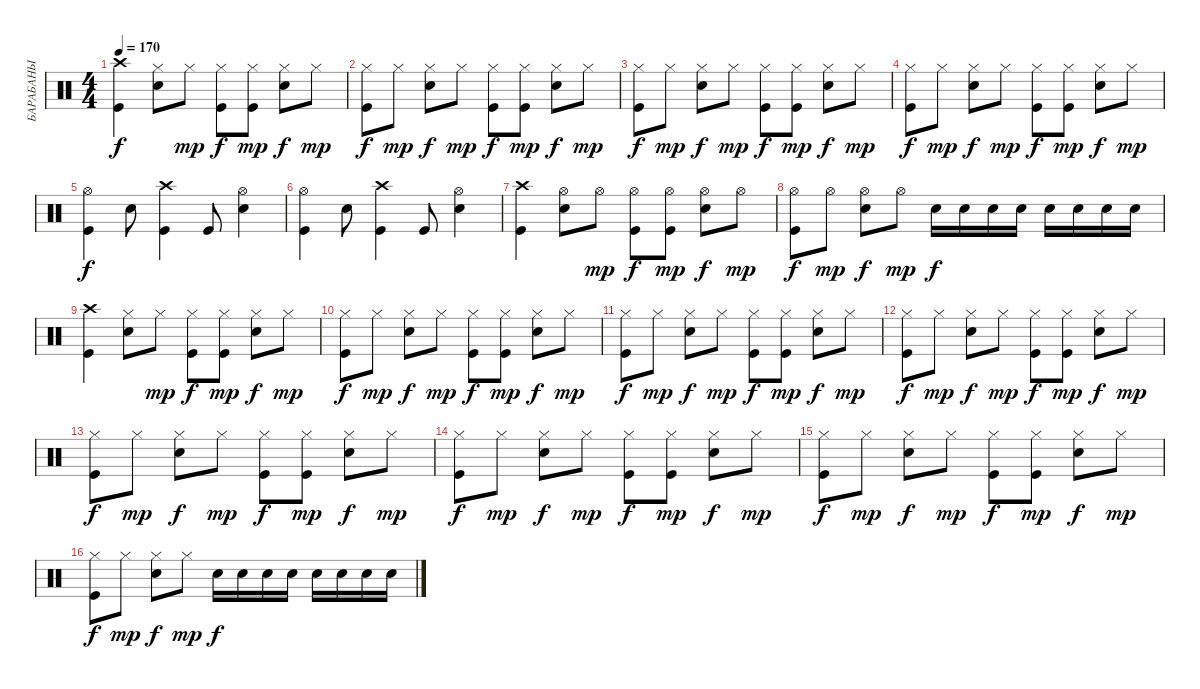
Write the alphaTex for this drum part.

\track ("БАРАБАНЫ" "БАРАБАНЫ") {instrument percussion}
\staff {score}
\articulation defaults
\ts (4 4)
\tempo 170
\clef neutral
\ks c
("Crash high (hit)" "Kick (hit)").4{dy f} ("Hi-Hat (closed)" "Electric Snare (hit)").8 "Hi-Hat (closed)".8{dy mp} ("Hi-Hat (closed)" "Kick (hit)").8{dy f} ("Hi-Hat (closed)" "Kick (hit)").8{dy mp} ("Hi-Hat (closed)" "Electric Snare (hit)").8{dy f} "Hi-Hat (closed)".8{dy mp} |
("Hi-Hat (closed)" "Kick (hit)").8{dy f} "Hi-Hat (closed)".8{dy mp} ("Hi-Hat (closed)" "Electric Snare (hit)").8{dy f} "Hi-Hat (closed)".8{dy mp} ("Hi-Hat (closed)" "Kick (hit)").8{dy f} ("Hi-Hat (closed)" "Kick (hit)").8{dy mp} ("Hi-Hat (closed)" "Electric Snare (hit)").8{dy f} "Hi-Hat (closed)".8{dy mp} |
("Hi-Hat (closed)" "Kick (hit)").8{dy f} "Hi-Hat (closed)".8{dy mp} ("Hi-Hat (closed)" "Electric Snare (hit)").8{dy f} "Hi-Hat (closed)".8{dy mp} ("Hi-Hat (closed)" "Kick (hit)").8{dy f} ("Hi-Hat (closed)" "Kick (hit)").8{dy mp} ("Hi-Hat (closed)" "Electric Snare (hit)").8{dy f} "Hi-Hat (closed)".8{dy mp} |
("Hi-Hat (closed)" "Kick (hit)").8{dy f} "Hi-Hat (closed)".8{dy mp} ("Hi-Hat (closed)" "Electric Snare (hit)").8{dy f} "Hi-Hat (closed)".8{dy mp} ("Hi-Hat (closed)" "Kick (hit)").8{dy f} ("Hi-Hat (closed)" "Kick (hit)").8{dy mp} ("Hi-Hat (closed)" "Electric Snare (hit)").8{dy f} "Hi-Hat (closed)".8{dy mp} |
("Hi-Hat (open)" "Kick (hit)").4{dy f} "Electric Snare (hit)".8 ("Crash high (hit)" "Kick (hit)").4 "Kick (hit)".8 ("Hi-Hat (open)" "Electric Snare (hit)").4 |
("Hi-Hat (open)" "Kick (hit)").4 "Electric Snare (hit)".8 ("Crash high (hit)" "Kick (hit)").4 "Kick (hit)".8 ("Hi-Hat (open)" "Electric Snare (hit)").4 |
("Crash high (hit)" "Kick (hit)").4 ("Hi-Hat (open)" "Electric Snare (hit)").8 "Hi-Hat (open)".8{dy mp} ("Hi-Hat (open)" "Kick (hit)").8{dy f} ("Hi-Hat (open)" "Kick (hit)").8{dy mp} ("Hi-Hat (open)" "Electric Snare (hit)").8{dy f} "Hi-Hat (open)".8{dy mp} |
("Hi-Hat (open)" "Kick (hit)").8{dy f} "Hi-Hat (open)".8{dy mp} ("Hi-Hat (open)" "Electric Snare (hit)").8{dy f} "Hi-Hat (open)".8{dy mp} "Electric Snare (hit)".16{dy f} "Electric Snare (hit)".16 "Electric Snare (hit)".16 "Electric Snare (hit)".16 "Electric Snare (hit)".16 "Electric Snare (hit)".16 "Electric Snare (hit)".16 "Electric Snare (hit)".16 |
("Crash high (hit)" "Kick (hit)").4 ("Hi-Hat (closed)" "Electric Snare (hit)").8 "Hi-Hat (closed)".8{dy mp} ("Hi-Hat (closed)" "Kick (hit)").8{dy f} ("Hi-Hat (closed)" "Kick (hit)").8{dy mp} ("Hi-Hat (closed)" "Electric Snare (hit)").8{dy f} "Hi-Hat (closed)".8{dy mp} |
("Hi-Hat (closed)" "Kick (hit)").8{dy f} "Hi-Hat (closed)".8{dy mp} ("Hi-Hat (closed)" "Electric Snare (hit)").8{dy f} "Hi-Hat (closed)".8{dy mp} ("Hi-Hat (closed)" "Kick (hit)").8{dy f} ("Hi-Hat (closed)" "Kick (hit)").8{dy mp} ("Hi-Hat (closed)" "Electric Snare (hit)").8{dy f} "Hi-Hat (closed)".8{dy mp} |
("Hi-Hat (closed)" "Kick (hit)").8{dy f} "Hi-Hat (closed)".8{dy mp} ("Hi-Hat (closed)" "Electric Snare (hit)").8{dy f} "Hi-Hat (closed)".8{dy mp} ("Hi-Hat (closed)" "Kick (hit)").8{dy f} ("Hi-Hat (closed)" "Kick (hit)").8{dy mp} ("Hi-Hat (closed)" "Electric Snare (hit)").8{dy f} "Hi-Hat (closed)".8{dy mp} |
("Hi-Hat (closed)" "Kick (hit)").8{dy f} "Hi-Hat (closed)".8{dy mp} ("Hi-Hat (closed)" "Electric Snare (hit)").8{dy f} "Hi-Hat (closed)".8{dy mp} ("Hi-Hat (closed)" "Kick (hit)").8{dy f} ("Hi-Hat (closed)" "Kick (hit)").8{dy mp} ("Hi-Hat (closed)" "Electric Snare (hit)").8{dy f} "Hi-Hat (closed)".8{dy mp} |
("Hi-Hat (closed)" "Kick (hit)").8{dy f} "Hi-Hat (closed)".8{dy mp} ("Hi-Hat (closed)" "Electric Snare (hit)").8{dy f} "Hi-Hat (closed)".8{dy mp} ("Hi-Hat (closed)" "Kick (hit)").8{dy f} ("Hi-Hat (closed)" "Kick (hit)").8{dy mp} ("Hi-Hat (closed)" "Electric Snare (hit)").8{dy f} "Hi-Hat (closed)".8{dy mp} |
("Hi-Hat (closed)" "Kick (hit)").8{dy f} "Hi-Hat (closed)".8{dy mp} ("Hi-Hat (closed)" "Electric Snare (hit)").8{dy f} "Hi-Hat (closed)".8{dy mp} ("Hi-Hat (closed)" "Kick (hit)").8{dy f} ("Hi-Hat (closed)" "Kick (hit)").8{dy mp} ("Hi-Hat (closed)" "Electric Snare (hit)").8{dy f} "Hi-Hat (closed)".8{dy mp} |
("Hi-Hat (closed)" "Kick (hit)").8{dy f} "Hi-Hat (closed)".8{dy mp} ("Hi-Hat (closed)" "Electric Snare (hit)").8{dy f} "Hi-Hat (closed)".8{dy mp} ("Hi-Hat (closed)" "Kick (hit)").8{dy f} ("Hi-Hat (closed)" "Kick (hit)").8{dy mp} ("Hi-Hat (closed)" "Electric Snare (hit)").8{dy f} "Hi-Hat (closed)".8{dy mp} |
("Hi-Hat (closed)" "Kick (hit)").8{dy f} "Hi-Hat (closed)".8{dy mp} ("Hi-Hat (closed)" "Electric Snare (hit)").8{dy f} "Hi-Hat (closed)".8{dy mp} "Electric Snare (hit)".16{dy f} "Electric Snare (hit)".16 "Electric Snare (hit)".16 "Electric Snare (hit)".16 "Electric Snare (hit)".16 "Electric Snare (hit)".16 "Electric Snare (hit)".16 "Electric Snare (hit)".16
